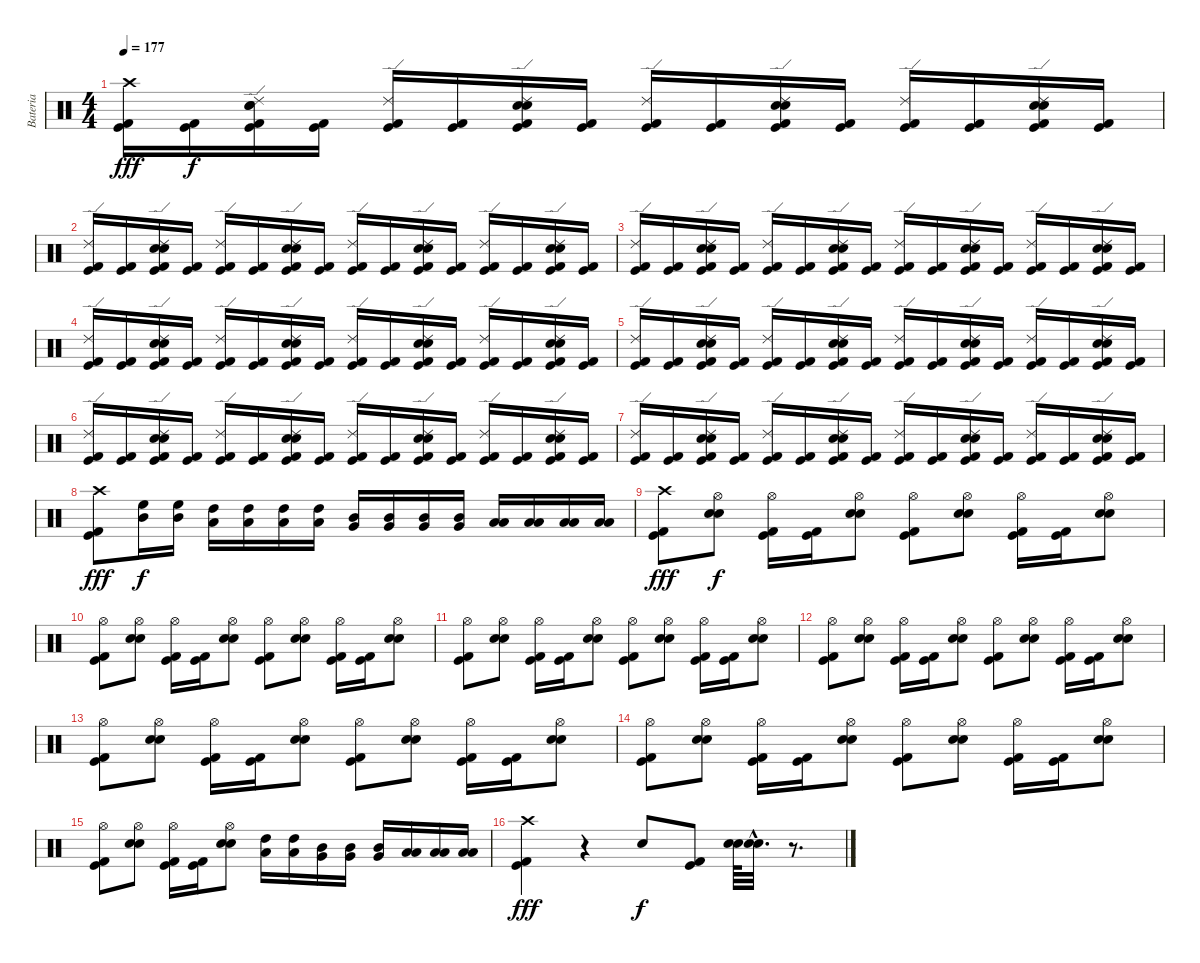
\track ("Bateria" "Bateria") {instrument percussion}
\staff {score}
\articulation defaults
\ts (4 4)
\tempo 177
\clef neutral
\ks c
("Crash high (hit)" "Kick (hit) 2" "Kick (hit)").16{dy fff} ("Kick (hit) 2" "Kick (hit)").16{dy f} ("Ride (edge) 2" "Electric Snare (hit)" "Snare (hit) 2" "Kick (hit) 2" "Kick (hit)").16 ("Kick (hit) 2" "Kick (hit)").16 ("Ride (edge) 2" "Kick (hit) 2" "Kick (hit)").16 ("Kick (hit) 2" "Kick (hit)").16 ("Ride (edge) 2" "Electric Snare (hit)" "Snare (hit) 2" "Kick (hit) 2" "Kick (hit)").16 ("Kick (hit) 2" "Kick (hit)").16 ("Ride (edge) 2" "Kick (hit) 2" "Kick (hit)").16 ("Kick (hit) 2" "Kick (hit)").16 ("Ride (edge) 2" "Electric Snare (hit)" "Snare (hit) 2" "Kick (hit) 2" "Kick (hit)").16 ("Kick (hit) 2" "Kick (hit)").16 ("Ride (edge) 2" "Kick (hit) 2" "Kick (hit)").16 ("Kick (hit) 2" "Kick (hit)").16 ("Ride (edge) 2" "Electric Snare (hit)" "Snare (hit) 2" "Kick (hit) 2" "Kick (hit)").16 ("Kick (hit) 2" "Kick (hit)").16 |
("Ride (edge) 2" "Kick (hit) 2" "Kick (hit)").16 ("Kick (hit) 2" "Kick (hit)").16 ("Ride (edge) 2" "Electric Snare (hit)" "Snare (hit) 2" "Kick (hit) 2" "Kick (hit)").16 ("Kick (hit) 2" "Kick (hit)").16 ("Ride (edge) 2" "Kick (hit) 2" "Kick (hit)").16 ("Kick (hit) 2" "Kick (hit)").16 ("Ride (edge) 2" "Electric Snare (hit)" "Snare (hit) 2" "Kick (hit) 2" "Kick (hit)").16 ("Kick (hit) 2" "Kick (hit)").16 ("Ride (edge) 2" "Kick (hit) 2" "Kick (hit)").16 ("Kick (hit) 2" "Kick (hit)").16 ("Ride (edge) 2" "Electric Snare (hit)" "Snare (hit) 2" "Kick (hit) 2" "Kick (hit)").16 ("Kick (hit) 2" "Kick (hit)").16 ("Ride (edge) 2" "Kick (hit) 2" "Kick (hit)").16 ("Kick (hit) 2" "Kick (hit)").16 ("Ride (edge) 2" "Electric Snare (hit)" "Snare (hit) 2" "Kick (hit) 2" "Kick (hit)").16 ("Kick (hit) 2" "Kick (hit)").16 |
("Ride (edge) 2" "Kick (hit) 2" "Kick (hit)").16 ("Kick (hit) 2" "Kick (hit)").16 ("Ride (edge) 2" "Electric Snare (hit)" "Snare (hit) 2" "Kick (hit) 2" "Kick (hit)").16 ("Kick (hit) 2" "Kick (hit)").16 ("Ride (edge) 2" "Kick (hit) 2" "Kick (hit)").16 ("Kick (hit) 2" "Kick (hit)").16 ("Ride (edge) 2" "Electric Snare (hit)" "Snare (hit) 2" "Kick (hit) 2" "Kick (hit)").16 ("Kick (hit) 2" "Kick (hit)").16 ("Ride (edge) 2" "Kick (hit) 2" "Kick (hit)").16 ("Kick (hit) 2" "Kick (hit)").16 ("Ride (edge) 2" "Electric Snare (hit)" "Snare (hit) 2" "Kick (hit) 2" "Kick (hit)").16 ("Kick (hit) 2" "Kick (hit)").16 ("Ride (edge) 2" "Kick (hit) 2" "Kick (hit)").16 ("Kick (hit) 2" "Kick (hit)").16 ("Ride (edge) 2" "Electric Snare (hit)" "Snare (hit) 2" "Kick (hit) 2" "Kick (hit)").16 ("Kick (hit) 2" "Kick (hit)").16 |
("Ride (edge) 2" "Kick (hit) 2" "Kick (hit)").16 ("Kick (hit) 2" "Kick (hit)").16 ("Ride (edge) 2" "Electric Snare (hit)" "Snare (hit) 2" "Kick (hit) 2" "Kick (hit)").16 ("Kick (hit) 2" "Kick (hit)").16 ("Ride (edge) 2" "Kick (hit) 2" "Kick (hit)").16 ("Kick (hit) 2" "Kick (hit)").16 ("Ride (edge) 2" "Electric Snare (hit)" "Snare (hit) 2" "Kick (hit) 2" "Kick (hit)").16 ("Kick (hit) 2" "Kick (hit)").16 ("Ride (edge) 2" "Kick (hit) 2" "Kick (hit)").16 ("Kick (hit) 2" "Kick (hit)").16 ("Ride (edge) 2" "Electric Snare (hit)" "Snare (hit) 2" "Kick (hit) 2" "Kick (hit)").16 ("Kick (hit) 2" "Kick (hit)").16 ("Ride (edge) 2" "Kick (hit) 2" "Kick (hit)").16 ("Kick (hit) 2" "Kick (hit)").16 ("Ride (edge) 2" "Electric Snare (hit)" "Snare (hit) 2" "Kick (hit) 2" "Kick (hit)").16 ("Kick (hit) 2" "Kick (hit)").16 |
("Ride (edge) 2" "Kick (hit) 2" "Kick (hit)").16 ("Kick (hit) 2" "Kick (hit)").16 ("Ride (edge) 2" "Electric Snare (hit)" "Snare (hit) 2" "Kick (hit) 2" "Kick (hit)").16 ("Kick (hit) 2" "Kick (hit)").16 ("Ride (edge) 2" "Kick (hit) 2" "Kick (hit)").16 ("Kick (hit) 2" "Kick (hit)").16 ("Ride (edge) 2" "Electric Snare (hit)" "Snare (hit) 2" "Kick (hit) 2" "Kick (hit)").16 ("Kick (hit) 2" "Kick (hit)").16 ("Ride (edge) 2" "Kick (hit) 2" "Kick (hit)").16 ("Kick (hit) 2" "Kick (hit)").16 ("Ride (edge) 2" "Electric Snare (hit)" "Snare (hit) 2" "Kick (hit) 2" "Kick (hit)").16 ("Kick (hit) 2" "Kick (hit)").16 ("Ride (edge) 2" "Kick (hit) 2" "Kick (hit)").16 ("Kick (hit) 2" "Kick (hit)").16 ("Ride (edge) 2" "Electric Snare (hit)" "Snare (hit) 2" "Kick (hit) 2" "Kick (hit)").16 ("Kick (hit) 2" "Kick (hit)").16 |
("Ride (edge) 2" "Kick (hit) 2" "Kick (hit)").16 ("Kick (hit) 2" "Kick (hit)").16 ("Ride (edge) 2" "Electric Snare (hit)" "Snare (hit) 2" "Kick (hit) 2" "Kick (hit)").16 ("Kick (hit) 2" "Kick (hit)").16 ("Ride (edge) 2" "Kick (hit) 2" "Kick (hit)").16 ("Kick (hit) 2" "Kick (hit)").16 ("Ride (edge) 2" "Electric Snare (hit)" "Snare (hit) 2" "Kick (hit) 2" "Kick (hit)").16 ("Kick (hit) 2" "Kick (hit)").16 ("Ride (edge) 2" "Kick (hit) 2" "Kick (hit)").16 ("Kick (hit) 2" "Kick (hit)").16 ("Ride (edge) 2" "Electric Snare (hit)" "Snare (hit) 2" "Kick (hit) 2" "Kick (hit)").16 ("Kick (hit) 2" "Kick (hit)").16 ("Ride (edge) 2" "Kick (hit) 2" "Kick (hit)").16 ("Kick (hit) 2" "Kick (hit)").16 ("Ride (edge) 2" "Electric Snare (hit)" "Snare (hit) 2" "Kick (hit) 2" "Kick (hit)").16 ("Kick (hit) 2" "Kick (hit)").16 |
("Ride (edge) 2" "Kick (hit) 2" "Kick (hit)").16 ("Kick (hit) 2" "Kick (hit)").16 ("Ride (edge) 2" "Electric Snare (hit)" "Snare (hit) 2" "Kick (hit) 2" "Kick (hit)").16 ("Kick (hit) 2" "Kick (hit)").16 ("Ride (edge) 2" "Kick (hit) 2" "Kick (hit)").16 ("Kick (hit) 2" "Kick (hit)").16 ("Ride (edge) 2" "Electric Snare (hit)" "Snare (hit) 2" "Kick (hit) 2" "Kick (hit)").16 ("Kick (hit) 2" "Kick (hit)").16 ("Ride (edge) 2" "Kick (hit) 2" "Kick (hit)").16 ("Kick (hit) 2" "Kick (hit)").16 ("Ride (edge) 2" "Electric Snare (hit)" "Snare (hit) 2" "Kick (hit) 2" "Kick (hit)").16 ("Kick (hit) 2" "Kick (hit)").16 ("Ride (edge) 2" "Kick (hit) 2" "Kick (hit)").16 ("Kick (hit) 2" "Kick (hit)").16 ("Ride (edge) 2" "Electric Snare (hit)" "Snare (hit) 2" "Kick (hit) 2" "Kick (hit)").16 ("Kick (hit) 2" "Kick (hit)").16 |
("Crash high (hit)" "Kick (hit) 2" "Kick (hit)").8{dy fff} ("High Floor Tom (hit)" "Mid Tom (hit)").16{dy f} ("High Floor Tom (hit)" "Mid Tom (hit)").16 ("High Tom (hit)" "Low Tom (hit)").16 ("High Tom (hit)" "Low Tom (hit)").16 ("High Tom (hit)" "Low Tom (hit)").16 ("High Tom (hit)" "Low Tom (hit)").16 ("Mid Tom (hit)" "Very Low Tom (hit)").16 ("Mid Tom (hit)" "Very Low Tom (hit)").16 ("Mid Tom (hit)" "Very Low Tom (hit)").16 ("Mid Tom (hit)" "Very Low Tom (hit)").16 ("Low Tom (hit)" "Low Floor Tom (hit)").16 ("Low Tom (hit)" "Low Floor Tom (hit)").16 ("Low Tom (hit)" "Low Floor Tom (hit)").16 ("Low Tom (hit)" "Low Floor Tom (hit)").16 |
("Crash high (hit)" "Kick (hit) 2" "Kick (hit)").8{dy fff} ("Hi-Hat (open)" "Electric Snare (hit)" "Snare (hit) 2").8{dy f} ("Hi-Hat (open)" "Kick (hit) 2" "Kick (hit)").16 ("Kick (hit) 2" "Kick (hit)").16 ("Hi-Hat (open)" "Electric Snare (hit)" "Snare (hit) 2").8 ("Hi-Hat (open)" "Kick (hit) 2" "Kick (hit)").8 ("Hi-Hat (open)" "Electric Snare (hit)" "Snare (hit) 2").8 ("Hi-Hat (open)" "Kick (hit) 2" "Kick (hit)").16 ("Kick (hit) 2" "Kick (hit)").16 ("Hi-Hat (open)" "Electric Snare (hit)" "Snare (hit) 2").8 |
("Hi-Hat (open)" "Kick (hit) 2" "Kick (hit)").8 ("Hi-Hat (open)" "Electric Snare (hit)" "Snare (hit) 2").8 ("Hi-Hat (open)" "Kick (hit) 2" "Kick (hit)").16 ("Kick (hit) 2" "Kick (hit)").16 ("Hi-Hat (open)" "Electric Snare (hit)" "Snare (hit) 2").8 ("Hi-Hat (open)" "Kick (hit) 2" "Kick (hit)").8 ("Hi-Hat (open)" "Electric Snare (hit)" "Snare (hit) 2").8 ("Hi-Hat (open)" "Kick (hit) 2" "Kick (hit)").16 ("Kick (hit) 2" "Kick (hit)").16 ("Hi-Hat (open)" "Electric Snare (hit)" "Snare (hit) 2").8 |
("Hi-Hat (open)" "Kick (hit) 2" "Kick (hit)").8 ("Hi-Hat (open)" "Electric Snare (hit)" "Snare (hit) 2").8 ("Hi-Hat (open)" "Kick (hit) 2" "Kick (hit)").16 ("Kick (hit) 2" "Kick (hit)").16 ("Hi-Hat (open)" "Electric Snare (hit)" "Snare (hit) 2").8 ("Hi-Hat (open)" "Kick (hit) 2" "Kick (hit)").8 ("Hi-Hat (open)" "Electric Snare (hit)" "Snare (hit) 2").8 ("Hi-Hat (open)" "Kick (hit) 2" "Kick (hit)").16 ("Kick (hit) 2" "Kick (hit)").16 ("Hi-Hat (open)" "Electric Snare (hit)" "Snare (hit) 2").8 |
("Hi-Hat (open)" "Kick (hit) 2" "Kick (hit)").8 ("Hi-Hat (open)" "Electric Snare (hit)" "Snare (hit) 2").8 ("Hi-Hat (open)" "Kick (hit) 2" "Kick (hit)").16 ("Kick (hit) 2" "Kick (hit)").16 ("Hi-Hat (open)" "Electric Snare (hit)" "Snare (hit) 2").8 ("Hi-Hat (open)" "Kick (hit) 2" "Kick (hit)").8 ("Hi-Hat (open)" "Electric Snare (hit)" "Snare (hit) 2").8 ("Hi-Hat (open)" "Kick (hit) 2" "Kick (hit)").16 ("Kick (hit) 2" "Kick (hit)").16 ("Hi-Hat (open)" "Electric Snare (hit)" "Snare (hit) 2").8 |
("Hi-Hat (open)" "Kick (hit) 2" "Kick (hit)").8 ("Hi-Hat (open)" "Electric Snare (hit)" "Snare (hit) 2").8 ("Hi-Hat (open)" "Kick (hit) 2" "Kick (hit)").16 ("Kick (hit) 2" "Kick (hit)").16 ("Hi-Hat (open)" "Electric Snare (hit)" "Snare (hit) 2").8 ("Hi-Hat (open)" "Kick (hit) 2" "Kick (hit)").8 ("Hi-Hat (open)" "Electric Snare (hit)" "Snare (hit) 2").8 ("Hi-Hat (open)" "Kick (hit) 2" "Kick (hit)").16 ("Kick (hit) 2" "Kick (hit)").16 ("Hi-Hat (open)" "Electric Snare (hit)" "Snare (hit) 2").8 |
("Hi-Hat (open)" "Kick (hit) 2" "Kick (hit)").8 ("Hi-Hat (open)" "Electric Snare (hit)" "Snare (hit) 2").8 ("Hi-Hat (open)" "Kick (hit) 2" "Kick (hit)").16 ("Kick (hit) 2" "Kick (hit)").16 ("Hi-Hat (open)" "Electric Snare (hit)" "Snare (hit) 2").8 ("Hi-Hat (open)" "Kick (hit) 2" "Kick (hit)").8 ("Hi-Hat (open)" "Electric Snare (hit)" "Snare (hit) 2").8 ("Hi-Hat (open)" "Kick (hit) 2" "Kick (hit)").16 ("Kick (hit) 2" "Kick (hit)").16 ("Hi-Hat (open)" "Electric Snare (hit)" "Snare (hit) 2").8 |
("Hi-Hat (open)" "Kick (hit) 2" "Kick (hit)").8 ("Hi-Hat (open)" "Electric Snare (hit)" "Snare (hit) 2").8 ("Hi-Hat (open)" "Kick (hit) 2" "Kick (hit)").16 ("Kick (hit) 2" "Kick (hit)").16 ("Hi-Hat (open)" "Electric Snare (hit)" "Snare (hit) 2").8 ("High Tom (hit)" "Low Tom (hit)").16 ("High Tom (hit)" "Low Tom (hit)").16 ("Mid Tom (hit)" "Very Low Tom (hit)").16 ("Mid Tom (hit)" "Very Low Tom (hit)").16 ("Mid Tom (hit)" "Very Low Tom (hit)").16 ("Low Tom (hit)" "Low Floor Tom (hit)").16 ("Low Tom (hit)" "Low Floor Tom (hit)").16 ("Low Tom (hit)" "Low Floor Tom (hit)").16 |
("Crash high (hit)" "Kick (hit) 2" "Kick (hit)").4{dy fff} r.4 "Snare (hit)"{x}.8{dy f} ("Kick (hit) 2" "Kick (hit)").8 ("Electric Snare (hit)" "Snare (hit) 2").64 ("Electric Snare (hit)"{hac} "Snare (hit) 2"{hac}).32{d} r.8{d}
